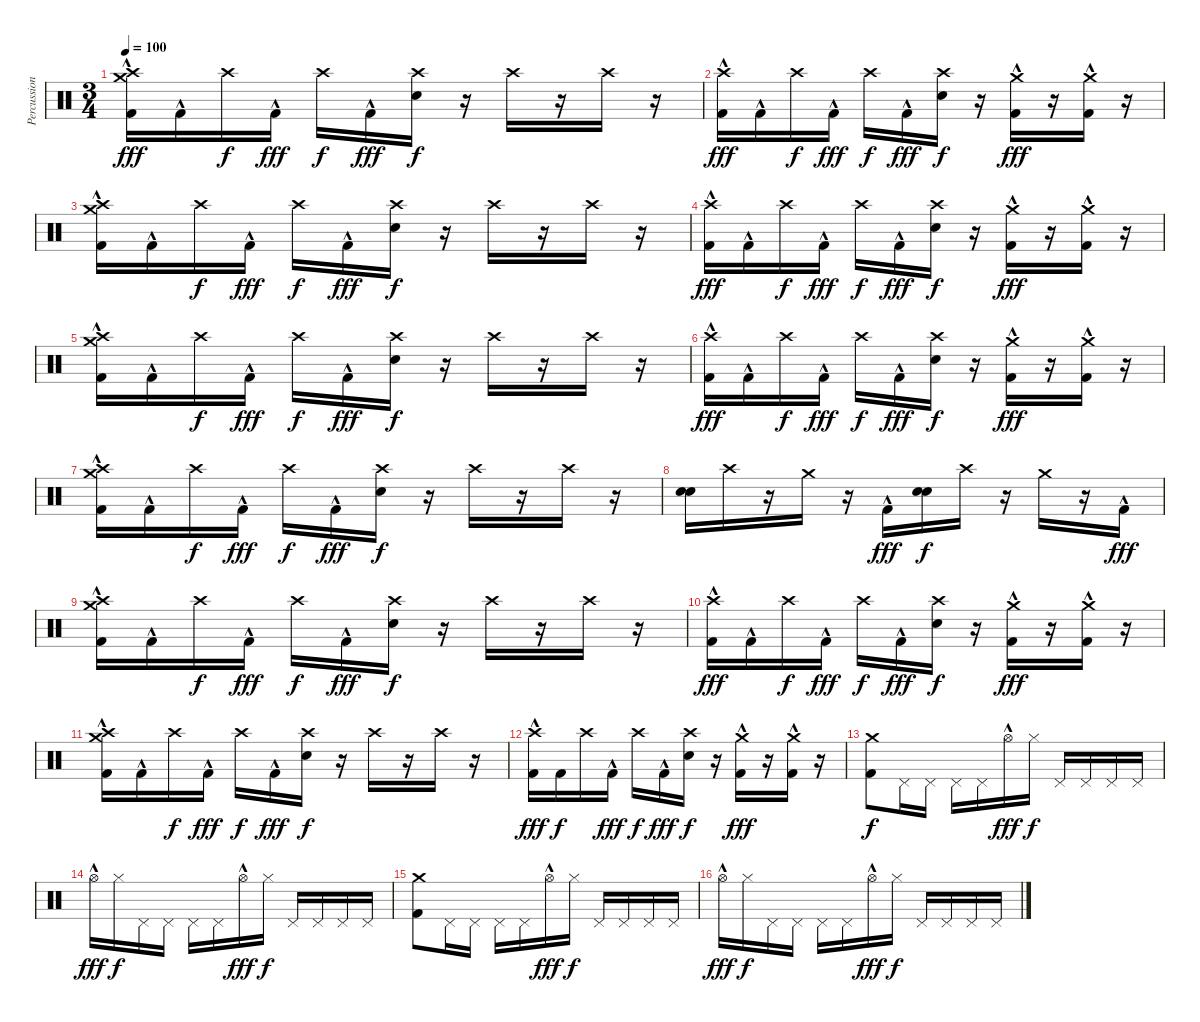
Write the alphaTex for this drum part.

\track ("Percussion" "Percussion") {instrument percussion}
\staff {score}
\articulation defaults
\ts (3 4)
\tempo 100
\clef neutral
\ks c
("Kick (hit) 2"{hac} "Crash high (hit)" "Crash medium (hit)").16{dy fff} "Kick (hit) 2"{hac}.16 "Crash high (hit)".16{dy f} "Kick (hit) 2"{hac}.16{dy fff} "Crash high (hit)".16{dy f} "Kick (hit) 2"{hac}.16{dy fff} ("Electric Snare (hit)" "Crash high (hit)").16{dy f} r.16 "Crash high (hit)".16 r.16 "Crash high (hit)".16 r.16 |
("Kick (hit) 2"{hac} "Crash high (hit)").16{dy fff} "Kick (hit) 2"{hac}.16 "Crash high (hit)".16{dy f} "Kick (hit) 2"{hac}.16{dy fff} "Crash high (hit)".16{dy f} "Kick (hit) 2"{hac}.16{dy fff} ("Electric Snare (hit)" "Crash high (hit)").16{dy f} r.16 ("Kick (hit) 2"{hac} "Crash medium (hit)").16{dy fff} r.16 ("Kick (hit) 2"{hac} "Crash medium (hit)").16 r.16 |
("Kick (hit) 2"{hac} "Crash high (hit)" "Crash medium (hit)").16 "Kick (hit) 2"{hac}.16 "Crash high (hit)".16{dy f} "Kick (hit) 2"{hac}.16{dy fff} "Crash high (hit)".16{dy f} "Kick (hit) 2"{hac}.16{dy fff} ("Electric Snare (hit)" "Crash high (hit)").16{dy f} r.16 "Crash high (hit)".16 r.16 "Crash high (hit)".16 r.16 |
("Kick (hit) 2"{hac} "Crash high (hit)").16{dy fff} "Kick (hit) 2"{hac}.16 "Crash high (hit)".16{dy f} "Kick (hit) 2"{hac}.16{dy fff} "Crash high (hit)".16{dy f} "Kick (hit) 2"{hac}.16{dy fff} ("Electric Snare (hit)" "Crash high (hit)").16{dy f} r.16 ("Kick (hit) 2"{hac} "Crash medium (hit)").16{dy fff} r.16 ("Kick (hit) 2"{hac} "Crash medium (hit)").16 r.16 |
("Kick (hit) 2"{hac} "Crash high (hit)" "Crash medium (hit)").16 "Kick (hit) 2"{hac}.16 "Crash high (hit)".16{dy f} "Kick (hit) 2"{hac}.16{dy fff} "Crash high (hit)".16{dy f} "Kick (hit) 2"{hac}.16{dy fff} ("Electric Snare (hit)" "Crash high (hit)").16{dy f} r.16 "Crash high (hit)".16 r.16 "Crash high (hit)".16 r.16 |
("Kick (hit) 2"{hac} "Crash high (hit)").16{dy fff} "Kick (hit) 2"{hac}.16 "Crash high (hit)".16{dy f} "Kick (hit) 2"{hac}.16{dy fff} "Crash high (hit)".16{dy f} "Kick (hit) 2"{hac}.16{dy fff} ("Electric Snare (hit)" "Crash high (hit)").16{dy f} r.16 ("Kick (hit) 2"{hac} "Crash medium (hit)").16{dy fff} r.16 ("Kick (hit) 2"{hac} "Crash medium (hit)").16 r.16 |
("Kick (hit) 2"{hac} "Crash high (hit)" "Crash medium (hit)").16 "Kick (hit) 2"{hac}.16 "Crash high (hit)".16{dy f} "Kick (hit) 2"{hac}.16{dy fff} "Crash high (hit)".16{dy f} "Kick (hit) 2"{hac}.16{dy fff} ("Electric Snare (hit)" "Crash high (hit)").16{dy f} r.16 "Crash high (hit)".16 r.16 "Crash high (hit)".16 r.16 |
("Electric Snare (hit)" "Electric Snare (hit)").16 "Crash high (hit)".16 r.16 "Crash medium (hit)".16 r.16 "Kick (hit) 2"{hac}.16{dy fff} ("Electric Snare (hit)" "Electric Snare (hit)").16{dy f} "Crash high (hit)".16 r.16 "Crash medium (hit)".16 r.16 "Kick (hit) 2"{hac}.16{dy fff} |
("Kick (hit) 2"{hac} "Crash high (hit)" "Crash medium (hit)").16 "Kick (hit) 2"{hac}.16 "Crash high (hit)".16{dy f} "Kick (hit) 2"{hac}.16{dy fff} "Crash high (hit)".16{dy f} "Kick (hit) 2"{hac}.16{dy fff} ("Electric Snare (hit)" "Crash high (hit)").16{dy f} r.16 "Crash high (hit)".16 r.16 "Crash high (hit)".16 r.16 |
("Kick (hit) 2"{hac} "Crash high (hit)").16{dy fff} "Kick (hit) 2"{hac}.16 "Crash high (hit)".16{dy f} "Kick (hit) 2"{hac}.16{dy fff} "Crash high (hit)".16{dy f} "Kick (hit) 2"{hac}.16{dy fff} ("Electric Snare (hit)" "Crash high (hit)").16{dy f} r.16 ("Kick (hit) 2"{hac} "Crash medium (hit)").16{dy fff} r.16 ("Kick (hit) 2"{hac} "Crash medium (hit)").16 r.16 |
("Kick (hit) 2"{hac} "Crash high (hit)" "Crash medium (hit)").16 "Kick (hit) 2"{hac}.16 "Crash high (hit)".16{dy f} "Kick (hit) 2"{hac}.16{dy fff} "Crash high (hit)".16{dy f} "Kick (hit) 2"{hac}.16{dy fff} ("Electric Snare (hit)" "Crash high (hit)").16{dy f} r.16 "Crash high (hit)".16 r.16 "Crash high (hit)".16 r.16 |
("Kick (hit) 2"{hac} "Crash high (hit)").16{dy fff} "Kick (hit) 2".16{dy f} "Crash high (hit)".16 "Kick (hit) 2"{hac}.16{dy fff} "Crash high (hit)".16{dy f} "Kick (hit) 2"{hac}.16{dy fff} ("Electric Snare (hit)" "Crash high (hit)").16{dy f} r.16 ("Kick (hit) 2"{hac} "Crash medium (hit)").16{dy fff} r.16 ("Kick (hit) 2"{hac} "Crash medium (hit)").16 r.16 |
("Kick (hit) 2" "Crash medium (hit)").8{dy f} "Pedal Hi-Hat (hit)".16 "Pedal Hi-Hat (hit)".16 "Pedal Hi-Hat (hit)".16 "Pedal Hi-Hat (hit)".16 "Hi-Hat (open)"{hac}.16{dy fff} "Hi-Hat (closed)".16{dy f} "Pedal Hi-Hat (hit)".16 "Pedal Hi-Hat (hit)".16 "Pedal Hi-Hat (hit)".16 "Pedal Hi-Hat (hit)".16 |
"Hi-Hat (open)"{hac}.16{dy fff} "Hi-Hat (closed)".16{dy f} "Pedal Hi-Hat (hit)".16 "Pedal Hi-Hat (hit)".16 "Pedal Hi-Hat (hit)".16 "Pedal Hi-Hat (hit)".16 "Hi-Hat (open)"{hac}.16{dy fff} "Hi-Hat (closed)".16{dy f} "Pedal Hi-Hat (hit)".16 "Pedal Hi-Hat (hit)".16 "Pedal Hi-Hat (hit)".16 "Pedal Hi-Hat (hit)".16 |
("Kick (hit) 2" "Crash medium (hit)").8 "Pedal Hi-Hat (hit)".16 "Pedal Hi-Hat (hit)".16 "Pedal Hi-Hat (hit)".16 "Pedal Hi-Hat (hit)".16 "Hi-Hat (open)"{hac}.16{dy fff} "Hi-Hat (closed)".16{dy f} "Pedal Hi-Hat (hit)".16 "Pedal Hi-Hat (hit)".16 "Pedal Hi-Hat (hit)".16 "Pedal Hi-Hat (hit)".16 |
"Hi-Hat (open)"{hac}.16{dy fff} "Hi-Hat (closed)".16{dy f} "Pedal Hi-Hat (hit)".16 "Pedal Hi-Hat (hit)".16 "Pedal Hi-Hat (hit)".16 "Pedal Hi-Hat (hit)".16 "Hi-Hat (open)"{hac}.16{dy fff} "Hi-Hat (closed)".16{dy f} "Pedal Hi-Hat (hit)".16 "Pedal Hi-Hat (hit)".16 "Pedal Hi-Hat (hit)".16 "Pedal Hi-Hat (hit)".16
